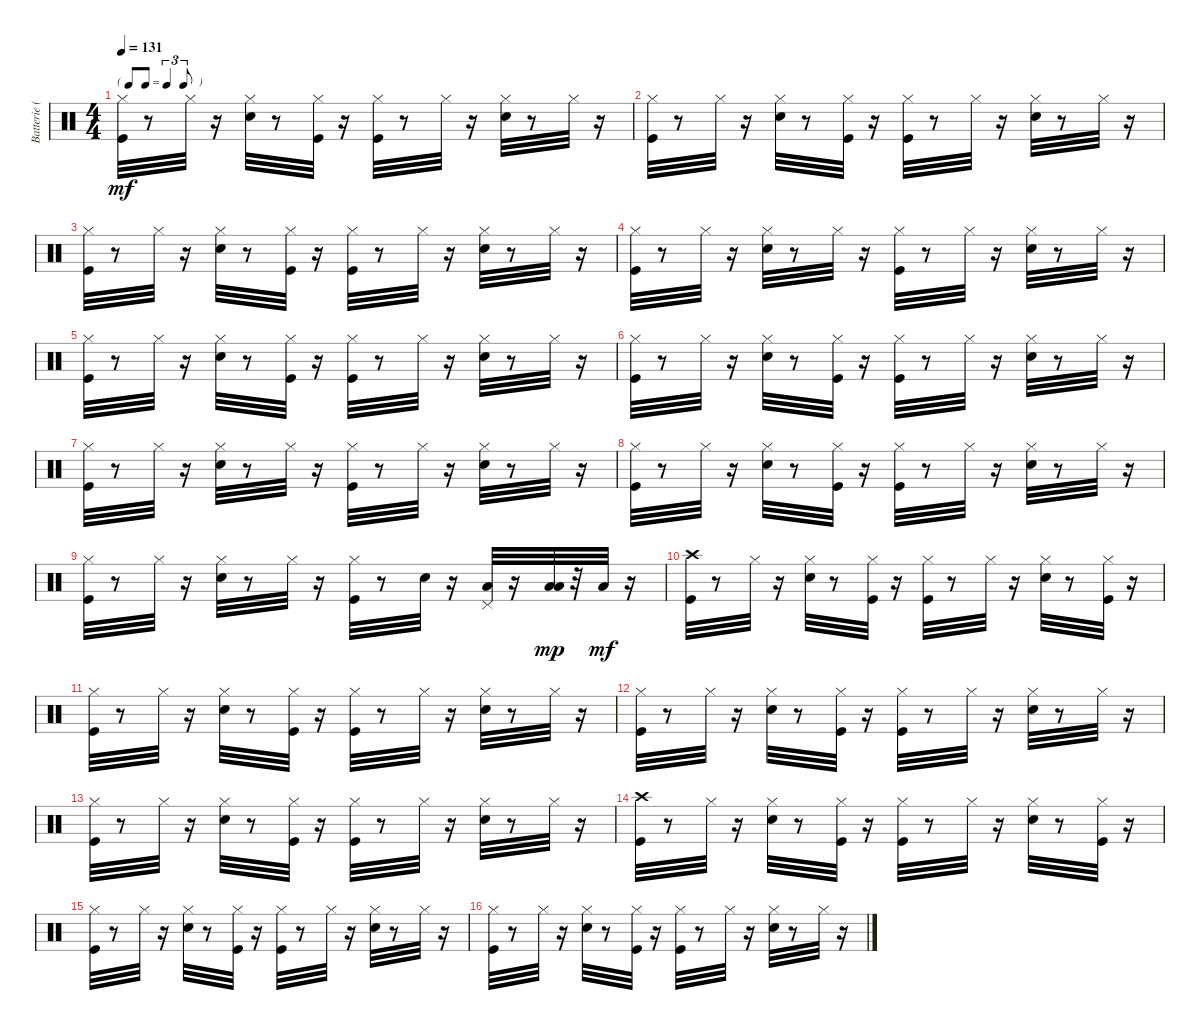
\track ("Batterie (midi)" "Batterie (") {instrument percussion}
\staff {score}
\articulation defaults
\ts (4 4)
\tf triplet8th
\tempo 131
\clef neutral
\ks c
("Kick (hit)" "Hi-Hat (closed)").32{dy mf} r.8 "Hi-Hat (closed)".32 r.16 ("Electric Snare (hit)" "Hi-Hat (closed)").32 r.8 ("Kick (hit)" "Hi-Hat (closed)").32 r.16 ("Kick (hit)" "Hi-Hat (closed)").32 r.8 "Hi-Hat (closed)".32 r.16 ("Electric Snare (hit)" "Hi-Hat (closed)").32 r.8 "Hi-Hat (closed)".32 r.16 |
("Kick (hit)" "Hi-Hat (closed)").32 r.8 "Hi-Hat (closed)".32 r.16 ("Electric Snare (hit)" "Hi-Hat (closed)").32 r.8 ("Kick (hit)" "Hi-Hat (closed)").32 r.16 ("Kick (hit)" "Hi-Hat (closed)").32 r.8 "Hi-Hat (closed)".32 r.16 ("Electric Snare (hit)" "Hi-Hat (closed)").32 r.8 "Hi-Hat (closed)".32 r.16 |
("Kick (hit)" "Hi-Hat (closed)").32 r.8 "Hi-Hat (closed)".32 r.16 ("Electric Snare (hit)" "Hi-Hat (closed)").32 r.8 ("Kick (hit)" "Hi-Hat (closed)").32 r.16 ("Kick (hit)" "Hi-Hat (closed)").32 r.8 "Hi-Hat (closed)".32 r.16 ("Electric Snare (hit)" "Hi-Hat (closed)").32 r.8 "Hi-Hat (closed)".32 r.16 |
("Kick (hit)" "Hi-Hat (closed)").32 r.8 "Hi-Hat (closed)".32 r.16 ("Electric Snare (hit)" "Hi-Hat (closed)").32 r.8 "Hi-Hat (closed)".32 r.16 ("Kick (hit)" "Hi-Hat (closed)").32 r.8 "Hi-Hat (closed)".32 r.16 ("Electric Snare (hit)" "Hi-Hat (closed)").32 r.8 "Hi-Hat (closed)".32 r.16 |
("Kick (hit)" "Hi-Hat (closed)").32 r.8 "Hi-Hat (closed)".32 r.16 ("Electric Snare (hit)" "Hi-Hat (closed)").32 r.8 ("Kick (hit)" "Hi-Hat (closed)").32 r.16 ("Kick (hit)" "Hi-Hat (closed)").32 r.8 "Hi-Hat (closed)".32 r.16 ("Electric Snare (hit)" "Hi-Hat (closed)").32 r.8 "Hi-Hat (closed)".32 r.16 |
("Kick (hit)" "Hi-Hat (closed)").32 r.8 "Hi-Hat (closed)".32 r.16 ("Electric Snare (hit)" "Hi-Hat (closed)").32 r.8 ("Kick (hit)" "Hi-Hat (closed)").32 r.16 ("Kick (hit)" "Hi-Hat (closed)").32 r.8 "Hi-Hat (closed)".32 r.16 ("Electric Snare (hit)" "Hi-Hat (closed)").32 r.8 "Hi-Hat (closed)".32 r.16 |
("Kick (hit)" "Hi-Hat (closed)").32 r.8 "Hi-Hat (closed)".32 r.16 ("Electric Snare (hit)" "Hi-Hat (closed)").32 r.8 "Hi-Hat (closed)".32 r.16 ("Kick (hit)" "Hi-Hat (closed)").32 r.8 "Hi-Hat (closed)".32 r.16 ("Electric Snare (hit)" "Hi-Hat (closed)").32 r.8 "Hi-Hat (closed)".32 r.16 |
("Kick (hit)" "Hi-Hat (closed)").32 r.8 "Hi-Hat (closed)".32 r.16 ("Electric Snare (hit)" "Hi-Hat (closed)").32 r.8 ("Kick (hit)" "Hi-Hat (closed)").32 r.16 ("Kick (hit)" "Hi-Hat (closed)").32 r.8 "Hi-Hat (closed)".32 r.16 ("Electric Snare (hit)" "Hi-Hat (closed)").32 r.8 "Hi-Hat (closed)".32 r.16 |
("Kick (hit)" "Hi-Hat (closed)").32 r.8 "Hi-Hat (closed)".32 r.16 ("Electric Snare (hit)" "Hi-Hat (closed)").32 r.8 "Hi-Hat (closed)".32 r.16 ("Kick (hit)" "Hi-Hat (closed)").32 r.8 "Electric Snare (hit)".32 r.16 ("Pedal Hi-Hat (hit)" "Low Tom (hit)").32 r.16 ("Low Floor Tom (hit)" "Low Floor Tom (hit)").32{dy mp} r.32 "Low Floor Tom (hit)".32{dy mf} r.16 |
("Kick (hit)" "Crash high (hit)").32 r.8 "Hi-Hat (closed)".32 r.16 ("Electric Snare (hit)" "Hi-Hat (closed)").32 r.8 ("Kick (hit)" "Hi-Hat (closed)").32 r.16 ("Kick (hit)" "Hi-Hat (closed)").32 r.8 "Hi-Hat (closed)".32 r.16 ("Electric Snare (hit)" "Hi-Hat (closed)").32 r.8 ("Kick (hit)" "Hi-Hat (closed)").32 r.16 |
("Kick (hit)" "Hi-Hat (closed)").32 r.8 "Hi-Hat (closed)".32 r.16 ("Electric Snare (hit)" "Hi-Hat (closed)").32 r.8 ("Kick (hit)" "Hi-Hat (closed)").32 r.16 ("Kick (hit)" "Hi-Hat (closed)").32 r.8 "Hi-Hat (closed)".32 r.16 ("Electric Snare (hit)" "Hi-Hat (closed)").32 r.8 "Hi-Hat (closed)".32 r.16 |
("Kick (hit)" "Hi-Hat (closed)").32 r.8 "Hi-Hat (closed)".32 r.16 ("Electric Snare (hit)" "Hi-Hat (closed)").32 r.8 ("Kick (hit)" "Hi-Hat (closed)").32 r.16 ("Kick (hit)" "Hi-Hat (closed)").32 r.8 "Hi-Hat (closed)".32 r.16 ("Electric Snare (hit)" "Hi-Hat (closed)").32 r.8 "Hi-Hat (closed)".32 r.16 |
("Kick (hit)" "Hi-Hat (closed)").32 r.8 "Hi-Hat (closed)".32 r.16 ("Electric Snare (hit)" "Hi-Hat (closed)").32 r.8 ("Kick (hit)" "Hi-Hat (closed)").32 r.16 ("Kick (hit)" "Hi-Hat (closed)").32 r.8 "Hi-Hat (closed)".32 r.16 ("Electric Snare (hit)" "Hi-Hat (closed)").32 r.8 "Hi-Hat (closed)".32 r.16 |
("Kick (hit)" "Crash high (hit)").32 r.8 "Hi-Hat (closed)".32 r.16 ("Electric Snare (hit)" "Hi-Hat (closed)").32 r.8 ("Kick (hit)" "Hi-Hat (closed)").32 r.16 ("Kick (hit)" "Hi-Hat (closed)").32 r.8 "Hi-Hat (closed)".32 r.16 ("Electric Snare (hit)" "Hi-Hat (closed)").32 r.8 ("Kick (hit)" "Hi-Hat (closed)").32 r.16 |
("Kick (hit)" "Hi-Hat (closed)").32 r.8 "Hi-Hat (closed)".32 r.16 ("Electric Snare (hit)" "Hi-Hat (closed)").32 r.8 ("Kick (hit)" "Hi-Hat (closed)").32 r.16 ("Kick (hit)" "Hi-Hat (closed)").32 r.8 "Hi-Hat (closed)".32 r.16 ("Electric Snare (hit)" "Hi-Hat (closed)").32 r.8 "Hi-Hat (closed)".32 r.16 |
("Kick (hit)" "Hi-Hat (closed)").32 r.8 "Hi-Hat (closed)".32 r.16 ("Electric Snare (hit)" "Hi-Hat (closed)").32 r.8 ("Kick (hit)" "Hi-Hat (closed)").32 r.16 ("Kick (hit)" "Hi-Hat (closed)").32 r.8 "Hi-Hat (closed)".32 r.16 ("Electric Snare (hit)" "Hi-Hat (closed)").32 r.8 "Hi-Hat (closed)".32 r.16
